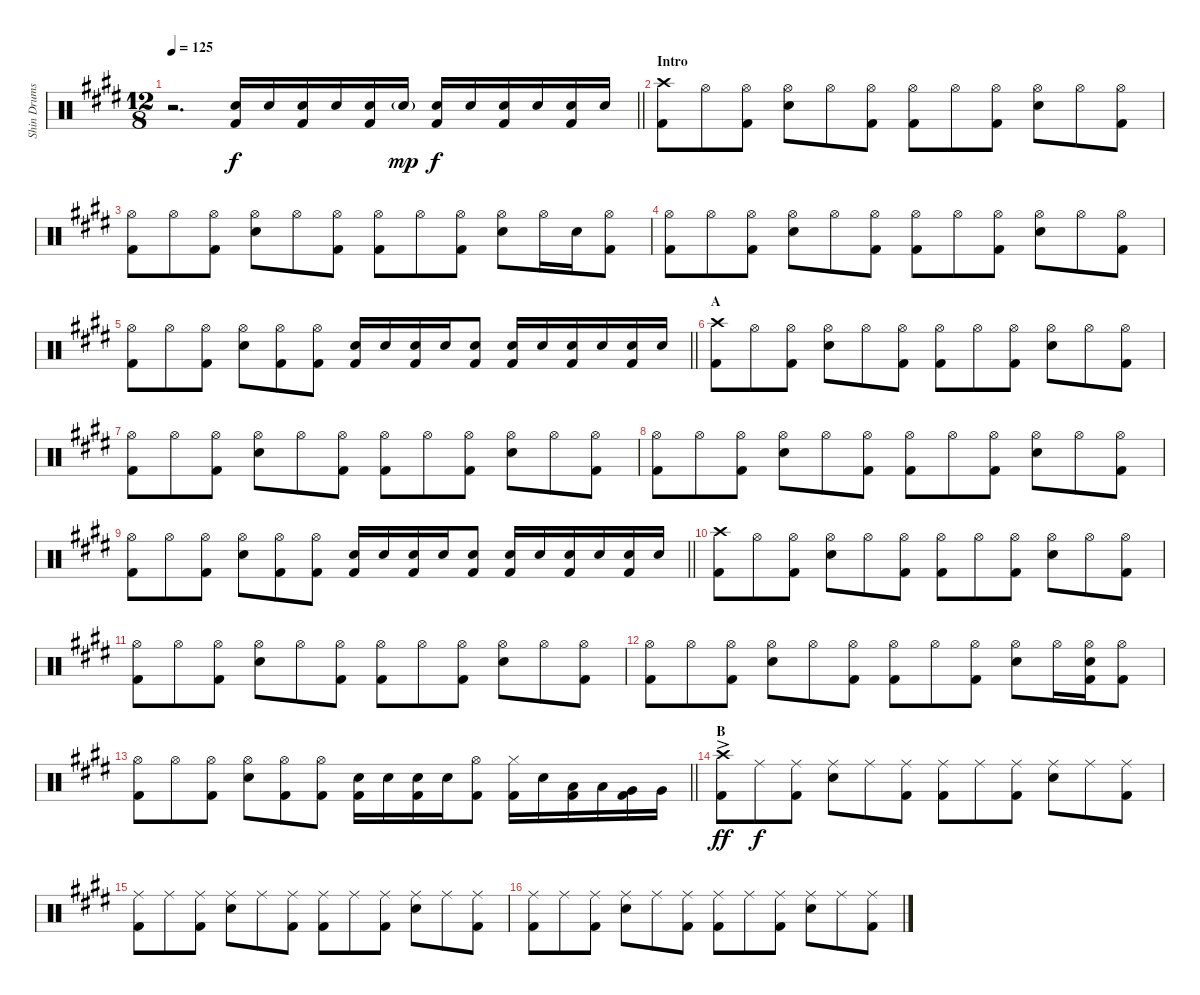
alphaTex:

\track ("Shin Drums" "Shin Drums") {instrument percussion}
\staff {score}
\articulation defaults
\ts (12 8)
\tempo 125
\clef neutral
\barLineRight lightlight
\ks e
r.2{d dy f} ("Snare (hit) 2" "Kick (hit) 2").16 "Snare (hit) 2".16 ("Snare (hit) 2" "Kick (hit) 2").16 "Snare (hit) 2".16 ("Snare (hit) 2" "Kick (hit) 2").16 "Snare (hit) 2"{g}.16{dy mp} ("Snare (hit) 2" "Kick (hit) 2").16{dy f} "Snare (hit) 2".16 ("Snare (hit) 2" "Kick (hit) 2").16 "Snare (hit) 2".16 ("Snare (hit) 2" "Kick (hit) 2").16 "Snare (hit) 2".16 |
\section ("" "Intro")
("Crash high (hit)" "Kick (hit) 2").8 "Hi-Hat (open)".8 ("Hi-Hat (open)" "Kick (hit) 2").8 ("Hi-Hat (open)" "Snare (hit) 2").8 "Hi-Hat (open)".8 ("Hi-Hat (open)" "Kick (hit) 2").8 ("Hi-Hat (open)" "Kick (hit) 2").8 "Hi-Hat (open)".8 ("Hi-Hat (open)" "Kick (hit) 2").8 ("Hi-Hat (open)" "Snare (hit) 2").8 "Hi-Hat (open)".8 ("Hi-Hat (open)" "Kick (hit) 2").8 |
("Hi-Hat (open)" "Kick (hit) 2").8 "Hi-Hat (open)".8 ("Hi-Hat (open)" "Kick (hit) 2").8 ("Hi-Hat (open)" "Snare (hit) 2").8 "Hi-Hat (open)".8 ("Hi-Hat (open)" "Kick (hit) 2").8 ("Hi-Hat (open)" "Kick (hit) 2").8 "Hi-Hat (open)".8 ("Hi-Hat (open)" "Kick (hit) 2").8 ("Hi-Hat (open)" "Snare (hit) 2").8 "Hi-Hat (open)".16 "Snare (hit) 2".16 ("Hi-Hat (open)" "Kick (hit) 2").8 |
("Hi-Hat (open)" "Kick (hit) 2").8 "Hi-Hat (open)".8 ("Hi-Hat (open)" "Kick (hit) 2").8 ("Hi-Hat (open)" "Snare (hit) 2").8 "Hi-Hat (open)".8 ("Hi-Hat (open)" "Kick (hit) 2").8 ("Hi-Hat (open)" "Kick (hit) 2").8 "Hi-Hat (open)".8 ("Hi-Hat (open)" "Kick (hit) 2").8 ("Hi-Hat (open)" "Snare (hit) 2").8 "Hi-Hat (open)".8 ("Hi-Hat (open)" "Kick (hit) 2").8 |
\barLineRight lightlight
("Hi-Hat (open)" "Kick (hit) 2").8 "Hi-Hat (open)".8 ("Hi-Hat (open)" "Kick (hit) 2").8 ("Hi-Hat (open)" "Snare (hit) 2").8 ("Hi-Hat (open)" "Kick (hit) 2").8 ("Hi-Hat (open)" "Kick (hit) 2").8 ("Snare (hit) 2" "Kick (hit) 2").16 "Snare (hit) 2".16 ("Snare (hit) 2" "Kick (hit) 2").16 "Snare (hit) 2".16 ("Snare (hit) 2" "Kick (hit) 2").8 ("Snare (hit) 2" "Kick (hit) 2").16 "Snare (hit) 2".16 ("Snare (hit) 2" "Kick (hit) 2").16 "Snare (hit) 2".16 ("Snare (hit) 2" "Kick (hit) 2").16 "Snare (hit) 2".16 |
\section ("" "A")
("Crash high (hit)" "Kick (hit) 2").8 "Hi-Hat (open)".8 ("Hi-Hat (open)" "Kick (hit) 2").8 ("Hi-Hat (open)" "Snare (hit) 2").8 "Hi-Hat (open)".8 ("Hi-Hat (open)" "Kick (hit) 2").8 ("Hi-Hat (open)" "Kick (hit) 2").8 "Hi-Hat (open)".8 ("Hi-Hat (open)" "Kick (hit) 2").8 ("Hi-Hat (open)" "Snare (hit) 2").8 "Hi-Hat (open)".8 ("Hi-Hat (open)" "Kick (hit) 2").8 |
("Hi-Hat (open)" "Kick (hit) 2").8 "Hi-Hat (open)".8 ("Hi-Hat (open)" "Kick (hit) 2").8 ("Hi-Hat (open)" "Snare (hit) 2").8 "Hi-Hat (open)".8 ("Hi-Hat (open)" "Kick (hit) 2").8 ("Hi-Hat (open)" "Kick (hit) 2").8 "Hi-Hat (open)".8 ("Hi-Hat (open)" "Kick (hit) 2").8 ("Hi-Hat (open)" "Snare (hit) 2").8 "Hi-Hat (open)".8 ("Hi-Hat (open)" "Kick (hit) 2").8 |
("Hi-Hat (open)" "Kick (hit) 2").8 "Hi-Hat (open)".8 ("Hi-Hat (open)" "Kick (hit) 2").8 ("Hi-Hat (open)" "Snare (hit) 2").8 "Hi-Hat (open)".8 ("Hi-Hat (open)" "Kick (hit) 2").8 ("Hi-Hat (open)" "Kick (hit) 2").8 "Hi-Hat (open)".8 ("Hi-Hat (open)" "Kick (hit) 2").8 ("Hi-Hat (open)" "Snare (hit) 2").8 "Hi-Hat (open)".8 ("Hi-Hat (open)" "Kick (hit) 2").8 |
\barLineRight lightlight
("Hi-Hat (open)" "Kick (hit) 2").8 "Hi-Hat (open)".8 ("Hi-Hat (open)" "Kick (hit) 2").8 ("Hi-Hat (open)" "Snare (hit) 2").8 ("Hi-Hat (open)" "Kick (hit) 2").8 ("Hi-Hat (open)" "Kick (hit) 2").8 ("Snare (hit) 2" "Kick (hit) 2").16 "Snare (hit) 2".16 ("Snare (hit) 2" "Kick (hit) 2").16 "Snare (hit) 2".16 ("Snare (hit) 2" "Kick (hit) 2").8 ("Snare (hit) 2" "Kick (hit) 2").16 "Snare (hit) 2".16 ("Snare (hit) 2" "Kick (hit) 2").16 "Snare (hit) 2".16 ("Snare (hit) 2" "Kick (hit) 2").16 "Snare (hit) 2".16 |
("Crash high (hit)" "Kick (hit) 2").8 "Hi-Hat (open)".8 ("Hi-Hat (open)" "Kick (hit) 2").8 ("Hi-Hat (open)" "Snare (hit) 2").8 "Hi-Hat (open)".8 ("Hi-Hat (open)" "Kick (hit) 2").8 ("Hi-Hat (open)" "Kick (hit) 2").8 "Hi-Hat (open)".8 ("Hi-Hat (open)" "Kick (hit) 2").8 ("Hi-Hat (open)" "Snare (hit) 2").8 "Hi-Hat (open)".8 ("Hi-Hat (open)" "Kick (hit) 2").8 |
("Hi-Hat (open)" "Kick (hit) 2").8 "Hi-Hat (open)".8 ("Hi-Hat (open)" "Kick (hit) 2").8 ("Hi-Hat (open)" "Snare (hit) 2").8 "Hi-Hat (open)".8 ("Hi-Hat (open)" "Kick (hit) 2").8 ("Hi-Hat (open)" "Kick (hit) 2").8 "Hi-Hat (open)".8 ("Hi-Hat (open)" "Kick (hit) 2").8 ("Hi-Hat (open)" "Snare (hit) 2").8 "Hi-Hat (open)".8 ("Hi-Hat (open)" "Kick (hit) 2").8 |
("Hi-Hat (open)" "Kick (hit) 2").8 "Hi-Hat (open)".8 ("Hi-Hat (open)" "Kick (hit) 2").8 ("Hi-Hat (open)" "Snare (hit) 2").8 "Hi-Hat (open)".8 ("Hi-Hat (open)" "Kick (hit) 2").8 ("Hi-Hat (open)" "Kick (hit) 2").8 "Hi-Hat (open)".8 ("Hi-Hat (open)" "Kick (hit) 2").8 ("Hi-Hat (open)" "Snare (hit) 2").8 "Hi-Hat (open)".16 ("Hi-Hat (open)" "Snare (hit) 2" "Kick (hit) 2").16 ("Hi-Hat (open)" "Kick (hit) 2").8 |
\barLineRight lightlight
("Hi-Hat (open)" "Kick (hit) 2").8 "Hi-Hat (open)".8 ("Hi-Hat (open)" "Kick (hit) 2").8 ("Hi-Hat (open)" "Snare (hit) 2").8 ("Hi-Hat (open)" "Kick (hit) 2").8 ("Hi-Hat (open)" "Kick (hit) 2").8 ("Snare (hit) 2" "Kick (hit) 2").16 "Snare (hit) 2".16 ("Snare (hit) 2" "Kick (hit) 2").16 "Snare (hit) 2".16 ("Hi-Hat (open)" "Kick (hit) 2").8 ("Hi-Hat (closed)" "Kick (hit) 2").16 "Snare (hit) 2".16 ("Low Tom (hit)" "Kick (hit) 2").16 "Low Tom (hit)".16 ("Very Low Tom (hit)" "Kick (hit) 2").16 "Very Low Tom (hit)".16 |
\section ("" "B")
("Crash high (hit)"{ac} "Kick (hit) 2").8{dy ff} "Ride (middle)".8{dy f} ("Ride (middle)" "Kick (hit) 2").8 ("Ride (middle)" "Snare (hit) 2").8 "Ride (middle)".8 ("Ride (middle)" "Kick (hit) 2").8 ("Ride (middle)" "Kick (hit) 2").8 "Ride (middle)".8 ("Ride (middle)" "Kick (hit) 2").8 ("Ride (middle)" "Snare (hit) 2").8 "Ride (middle)".8 ("Ride (middle)" "Kick (hit) 2").8 |
("Ride (middle)" "Kick (hit) 2").8 "Ride (middle)".8 ("Ride (middle)" "Kick (hit) 2").8 ("Ride (middle)" "Snare (hit) 2").8 "Ride (middle)".8 ("Ride (middle)" "Kick (hit) 2").8 ("Ride (middle)" "Kick (hit) 2").8 "Ride (middle)".8 ("Ride (middle)" "Kick (hit) 2").8 ("Ride (middle)" "Snare (hit) 2").8 "Ride (middle)".8 ("Ride (middle)" "Kick (hit) 2").8 |
("Ride (middle)" "Kick (hit) 2").8 "Ride (middle)".8 ("Ride (middle)" "Kick (hit) 2").8 ("Ride (middle)" "Snare (hit) 2").8 "Ride (middle)".8 ("Ride (middle)" "Kick (hit) 2").8 ("Ride (middle)" "Kick (hit) 2").8 "Ride (middle)".8 ("Ride (middle)" "Kick (hit) 2").8 ("Ride (middle)" "Snare (hit) 2").8 "Ride (middle)".8 ("Ride (middle)" "Kick (hit) 2").8
